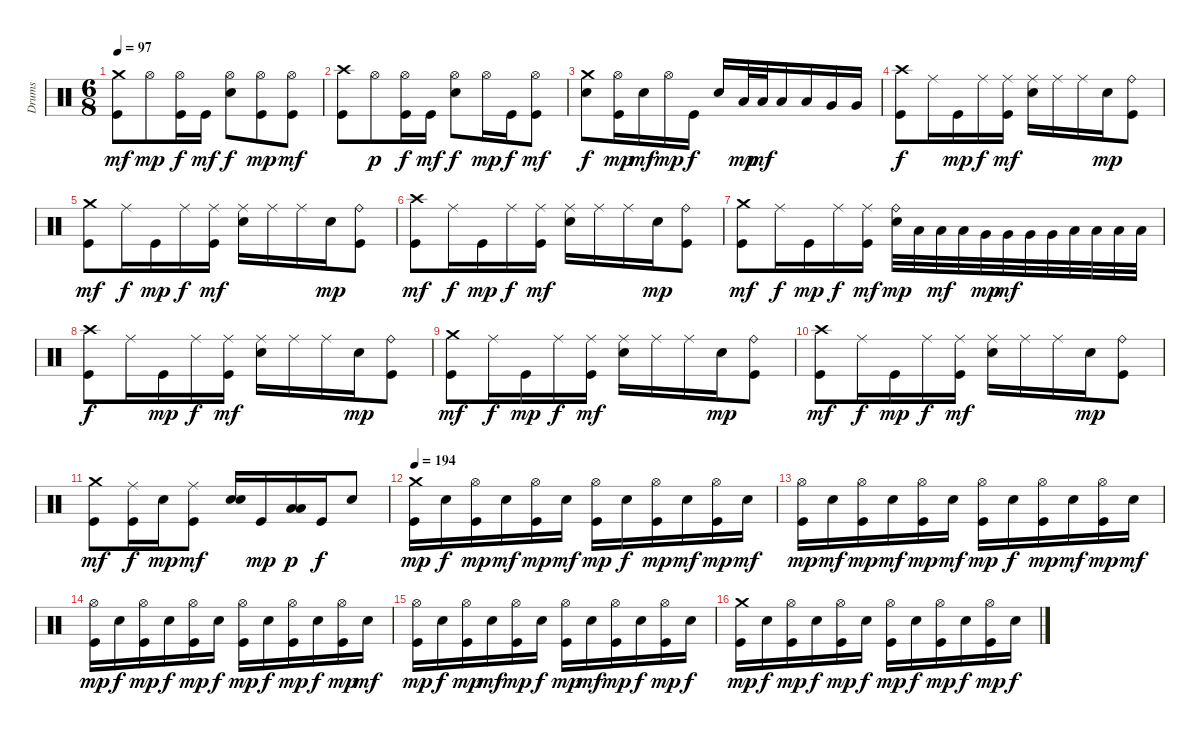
\track ("Drums" "Drums") {instrument percussion}
\staff {score}
\articulation defaults
\ts (6 8)
\tempo 97
\clef neutral
\ks c
("Crash medium (hit)" "Kick (hit)").8{dy mf} "Hi-Hat (open)".8{dy mp} ("Hi-Hat (open)" "Kick (hit)").16{dy f} "Kick (hit)".16{dy mf} ("Hi-Hat (open)" "Snare (hit) 2").8{dy f} ("Hi-Hat (open)" "Kick (hit)").8{dy mp} ("Hi-Hat (open)" "Kick (hit)").8{dy mf} |
("Crash high (hit)" "Kick (hit)").8 "Hi-Hat (open)".8{dy p} ("Hi-Hat (open)" "Kick (hit)").16{dy f} "Kick (hit)".16{dy mf} ("Hi-Hat (open)" "Snare (hit) 2").8{dy f} "Hi-Hat (open)".16{dy mp} "Kick (hit)".16{dy f} ("Hi-Hat (open)" "Kick (hit)").8{dy mf} |
("Crash medium (hit)" "Snare (hit) 2").8{dy f} ("Hi-Hat (open)" "Kick (hit)").16{dy mp} "Snare (hit) 2".16{dy mf} "Hi-Hat (open)".16{dy mp} "Kick (hit)".16{dy f} "Snare (hit) 2".16 "Low Tom (hit)".32{dy mp} "Low Tom (hit)".32{dy mf} "Low Tom (hit)".16 "Low Tom (hit)".16 "Very Low Tom (hit)".16 "Very Low Tom (hit)".16 |
("Crash high (hit)" "Kick (hit)").8{dy f} "Ride (middle)".16 "Kick (hit)".16{dy mp} "Ride (middle)".16{dy f} ("Kick (hit)" "Ride (middle)").16{dy mf} ("Snare (hit) 2" "Ride (middle)").16 "Ride (middle)".16 "Ride (middle)".16 "Snare (hit) 2".16{dy mp} ("Ride (bell)" "Kick (hit)").8 |
("Crash medium (hit)" "Kick (hit)").8{dy mf} "Ride (middle)".16{dy f} "Kick (hit)".16{dy mp} "Ride (middle)".16{dy f} ("Kick (hit)" "Ride (middle)").16{dy mf} ("Snare (hit) 2" "Ride (middle)").16 "Ride (middle)".16 "Ride (middle)".16 "Snare (hit) 2".16{dy mp} ("Ride (bell)" "Kick (hit)").8 |
("Crash high (hit)" "Kick (hit)").8{dy mf} "Ride (middle)".16{dy f} "Kick (hit)".16{dy mp} "Ride (middle)".16{dy f} ("Kick (hit)" "Ride (middle)").16{dy mf} ("Snare (hit) 2" "Ride (middle)").16 "Ride (middle)".16 "Ride (middle)".16 "Snare (hit) 2".16{dy mp} ("Ride (bell)" "Kick (hit)").8 |
("Crash medium (hit)" "Kick (hit)").8{dy mf} "Ride (middle)".16{dy f} "Kick (hit)".16{dy mp} "Ride (middle)".16{dy f} ("Kick (hit)" "Ride (middle)").16{dy mf} ("Ride (bell)" "Snare (hit) 2").32{dy mp} "Low Tom (hit)".32 "Low Tom (hit)".32{dy mf} "Low Tom (hit)".32 "Very Low Tom (hit)".32{dy mp} "Very Low Tom (hit)".32{dy mf} "Very Low Tom (hit)".32 "Very Low Tom (hit)".32 "Low Floor Tom (hit)".32 "Low Floor Tom (hit)".32 "Low Floor Tom (hit)".32 "Low Floor Tom (hit)".32 |
("Crash high (hit)" "Kick (hit)").8{dy f} "Ride (middle)".16 "Kick (hit)".16{dy mp} "Ride (middle)".16{dy f} ("Kick (hit)" "Ride (middle)").16{dy mf} ("Snare (hit) 2" "Ride (middle)").16 "Ride (middle)".16 "Ride (middle)".16 "Snare (hit) 2".16{dy mp} ("Ride (bell)" "Kick (hit)").8 |
("Crash medium (hit)" "Kick (hit)").8{dy mf} "Ride (middle)".16{dy f} "Kick (hit)".16{dy mp} "Ride (middle)".16{dy f} ("Kick (hit)" "Ride (middle)").16{dy mf} ("Snare (hit) 2" "Ride (middle)").16 "Ride (middle)".16 "Ride (middle)".16 "Snare (hit) 2".16{dy mp} ("Ride (bell)" "Kick (hit)").8 |
("Crash high (hit)" "Kick (hit)").8{dy mf} "Ride (middle)".16{dy f} "Kick (hit)".16{dy mp} "Ride (middle)".16{dy f} ("Kick (hit)" "Ride (middle)").16{dy mf} ("Snare (hit) 2" "Ride (middle)").16 "Ride (middle)".16 "Ride (middle)".16 "Snare (hit) 2".16{dy mp} ("Ride (bell)" "Kick (hit)").8 |
("Crash medium (hit)" "Kick (hit)").8{dy mf} ("Kick (hit)" "Ride (middle)").16{dy f} "Snare (hit) 2".16{dy mp} ("Kick (hit)" "Ride (middle)").8{dy mf} ("Snare (hit) 2" "Snare (hit) 2").16 "Kick (hit)".16{dy mp} ("Low Floor Tom (hit)" "Low Tom (hit)").16{dy p} "Kick (hit)".16{dy f} "Snare (hit) 2".8 |
\tempo 194
("Crash medium (hit)" "Kick (hit)").16{dy mp} "Snare (hit) 2".16{dy f} ("Hi-Hat (open)" "Kick (hit)").16{dy mp} "Snare (hit) 2".16{dy mf} ("Hi-Hat (open)" "Kick (hit)").16{dy mp} "Snare (hit) 2".16{dy mf} ("Hi-Hat (open)" "Kick (hit)").16{dy mp} "Snare (hit) 2".16{dy f} ("Hi-Hat (open)" "Kick (hit)").16{dy mp} "Snare (hit) 2".16{dy mf} ("Hi-Hat (open)" "Kick (hit)").16{dy mp} "Snare (hit) 2".16{dy mf} |
("Hi-Hat (open)" "Kick (hit)").16{dy mp} "Snare (hit) 2".16{dy mf} ("Hi-Hat (open)" "Kick (hit)").16{dy mp} "Snare (hit) 2".16{dy mf} ("Hi-Hat (open)" "Kick (hit)").16{dy mp} "Snare (hit) 2".16{dy mf} ("Hi-Hat (open)" "Kick (hit)").16{dy mp} "Snare (hit) 2".16{dy f} ("Hi-Hat (open)" "Kick (hit)").16{dy mp} "Snare (hit) 2".16{dy mf} ("Hi-Hat (open)" "Kick (hit)").16{dy mp} "Snare (hit) 2".16{dy mf} |
("Hi-Hat (open)" "Kick (hit)").16{dy mp} "Snare (hit) 2".16{dy f} ("Hi-Hat (open)" "Kick (hit)").16{dy mp} "Snare (hit) 2".16{dy f} ("Hi-Hat (open)" "Kick (hit)").16{dy mp} "Snare (hit) 2".16{dy f} ("Hi-Hat (open)" "Kick (hit)").16{dy mp} "Snare (hit) 2".16{dy f} ("Hi-Hat (open)" "Kick (hit)").16{dy mp} "Snare (hit) 2".16{dy f} ("Hi-Hat (open)" "Kick (hit)").16{dy mp} "Snare (hit) 2".16{dy mf} |
("Hi-Hat (open)" "Kick (hit)").16{dy mp} "Snare (hit) 2".16{dy f} ("Hi-Hat (open)" "Kick (hit)").16{dy mp} "Snare (hit) 2".16{dy mf} ("Hi-Hat (open)" "Kick (hit)").16{dy mp} "Snare (hit) 2".16{dy f} ("Hi-Hat (open)" "Kick (hit)").16{dy mp} "Snare (hit) 2".16{dy mf} ("Hi-Hat (open)" "Kick (hit)").16{dy mp} "Snare (hit) 2".16{dy f} ("Hi-Hat (open)" "Kick (hit)").16{dy mp} "Snare (hit) 2".16{dy f} |
("Crash medium (hit)" "Kick (hit)").16{dy mp} "Snare (hit) 2".16{dy f} ("Hi-Hat (open)" "Kick (hit)").16{dy mp} "Snare (hit) 2".16{dy f} ("Hi-Hat (open)" "Kick (hit)").16{dy mp} "Snare (hit) 2".16{dy f} ("Hi-Hat (open)" "Kick (hit)").16{dy mp} "Snare (hit) 2".16{dy f} ("Hi-Hat (open)" "Kick (hit)").16{dy mp} "Snare (hit) 2".16{dy f} ("Hi-Hat (open)" "Kick (hit)").16{dy mp} "Snare (hit) 2".16{dy f}
